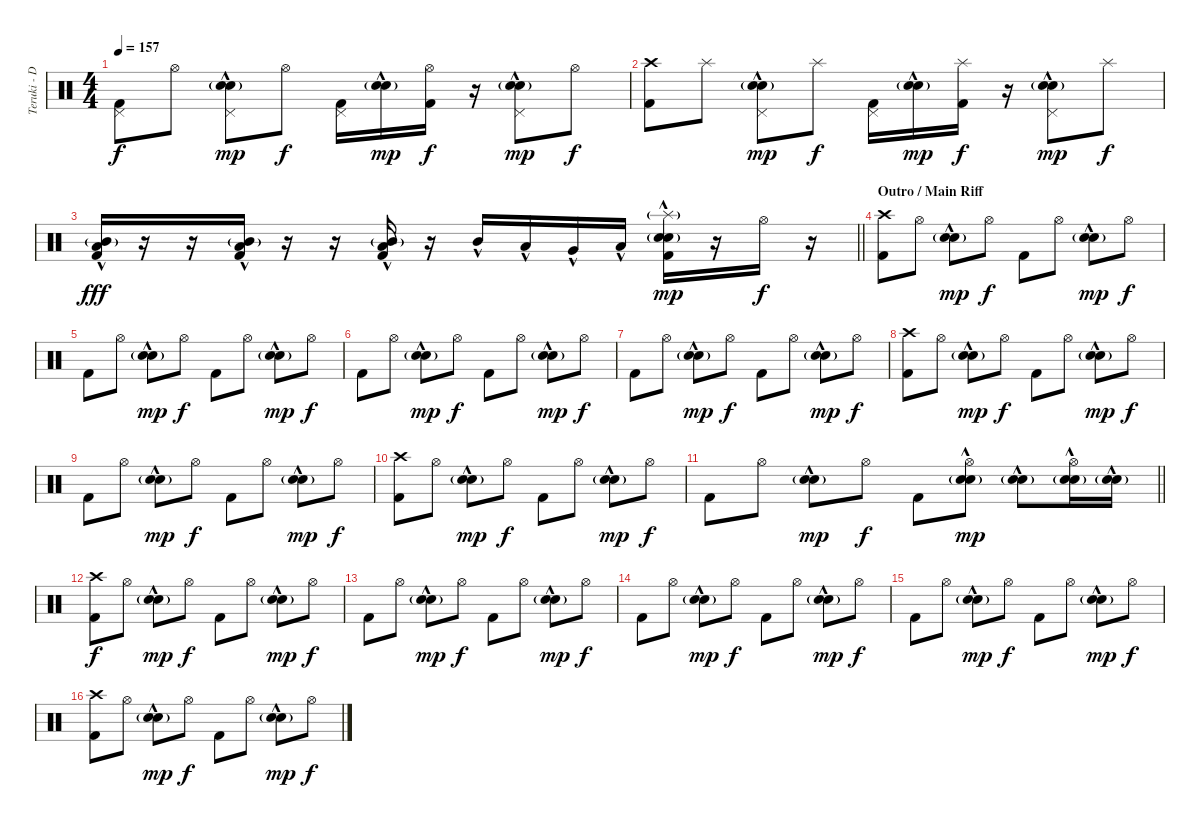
\track ("Teruki - Drums" "Teruki - D") {instrument percussion}
\staff {score}
\articulation defaults
\ts (4 4)
\tempo 157
\clef neutral
\ks c
("Pedal Hi-Hat (hit)" "Kick (hit) 2").8{dy f} "Hi-Hat (open)".8 ("Pedal Hi-Hat (hit)" "Electric Snare (hit)"{hac} "Snare (hit) 2"{g}).8{dy mp} "Hi-Hat (open)".8{dy f} ("Pedal Hi-Hat (hit)" "Kick (hit) 2").16 ("Electric Snare (hit)"{hac} "Snare (hit) 2"{g}).16{dy mp} ("Hi-Hat (open)" "Kick (hit) 2").16{dy f} r.16 ("Pedal Hi-Hat (hit)" "Electric Snare (hit)"{hac} "Snare (hit) 2"{g}).8{dy mp} "Hi-Hat (open)".8{dy f} |
("Crash high (hit)" "Kick (hit) 2").8 "Splash (hit)".8 ("Pedal Hi-Hat (hit)" "Electric Snare (hit)"{hac} "Snare (hit) 2"{g}).8{dy mp} "Splash (hit)".8{dy f} ("Pedal Hi-Hat (hit)" "Kick (hit) 2").16 ("Electric Snare (hit)"{hac} "Snare (hit) 2"{g}).16{dy mp} ("Splash (hit)" "Kick (hit) 2").16{dy f} r.16 ("Pedal Hi-Hat (hit)" "Electric Snare (hit)"{hac} "Snare (hit) 2"{g}).8{dy mp} "Splash (hit)".8{dy f} |
\barLineRight lightlight
("Mid Tom (hit)"{g} "Low Tom (hit)"{hac} "Kick (hit) 2").16{dy fff} r.16 r.16 ("Mid Tom (hit)"{g} "Low Tom (hit)"{hac} "Kick (hit) 2").16 r.16 r.16 ("Mid Tom (hit)"{g} "Low Tom (hit)"{hac} "Kick (hit) 2").16 r.16 "Mid Tom (hit)"{hac}.16 "Low Tom (hit)"{hac}.16 "Very Low Tom (hit)"{hac}.16 "Low Floor Tom (hit)"{hac}.16 ("Splash (hit)"{g} "Electric Snare (hit)"{hac} "Snare (hit) 2"{g} "Kick (hit) 2").16{dy mp} r.16 "Hi-Hat (open)".16{dy f} r.16 |
\section ("" "Outro / Main Riff")
("Crash high (hit)" "Kick (hit) 2").8 "Hi-Hat (open)".8 ("Electric Snare (hit)"{hac} "Snare (hit) 2"{g}).8{dy mp} "Hi-Hat (open)".8{dy f} "Kick (hit) 2".8 "Hi-Hat (open)".8 ("Electric Snare (hit)"{hac} "Snare (hit) 2"{g}).8{dy mp} "Hi-Hat (open)".8{dy f} |
"Kick (hit) 2".8 "Hi-Hat (open)".8 ("Electric Snare (hit)"{hac} "Snare (hit) 2"{g}).8{dy mp} "Hi-Hat (open)".8{dy f} "Kick (hit) 2".8 "Hi-Hat (open)".8 ("Electric Snare (hit)"{hac} "Snare (hit) 2"{g}).8{dy mp} "Hi-Hat (open)".8{dy f} |
"Kick (hit) 2".8 "Hi-Hat (open)".8 ("Electric Snare (hit)"{hac} "Snare (hit) 2"{g}).8{dy mp} "Hi-Hat (open)".8{dy f} "Kick (hit) 2".8 "Hi-Hat (open)".8 ("Electric Snare (hit)"{hac} "Snare (hit) 2"{g}).8{dy mp} "Hi-Hat (open)".8{dy f} |
"Kick (hit) 2".8 "Hi-Hat (open)".8 ("Electric Snare (hit)"{hac} "Snare (hit) 2"{g}).8{dy mp} "Hi-Hat (open)".8{dy f} "Kick (hit) 2".8 "Hi-Hat (open)".8 ("Electric Snare (hit)"{hac} "Snare (hit) 2"{g}).8{dy mp} "Hi-Hat (open)".8{dy f} |
("Crash high (hit)" "Kick (hit) 2").8 "Hi-Hat (open)".8 ("Electric Snare (hit)"{hac} "Snare (hit) 2"{g}).8{dy mp} "Hi-Hat (open)".8{dy f} "Kick (hit) 2".8 "Hi-Hat (open)".8 ("Electric Snare (hit)"{hac} "Snare (hit) 2"{g}).8{dy mp} "Hi-Hat (open)".8{dy f} |
"Kick (hit) 2".8 "Hi-Hat (open)".8 ("Electric Snare (hit)"{hac} "Snare (hit) 2"{g}).8{dy mp} "Hi-Hat (open)".8{dy f} "Kick (hit) 2".8 "Hi-Hat (open)".8 ("Electric Snare (hit)"{hac} "Snare (hit) 2"{g}).8{dy mp} "Hi-Hat (open)".8{dy f} |
("Crash high (hit)" "Kick (hit) 2").8 "Hi-Hat (open)".8 ("Electric Snare (hit)"{hac} "Snare (hit) 2"{g}).8{dy mp} "Hi-Hat (open)".8{dy f} "Kick (hit) 2".8 "Hi-Hat (open)".8 ("Electric Snare (hit)"{hac} "Snare (hit) 2"{g}).8{dy mp} "Hi-Hat (open)".8{dy f} |
\barLineRight lightlight "Kick (hit) 2".8 "Hi-Hat (open)".8
("Electric Snare (hit)"{hac} "Snare (hit) 2"{g}).8{dy mp} "Hi-Hat (open)".8{dy f} "Kick (hit) 2".8 ("Hi-Hat (open)" "Electric Snare (hit)"{hac} "Snare (hit) 2"{g}).8{dy mp} ("Electric Snare (hit)"{hac} "Snare (hit) 2"{g}).8 ("Hi-Hat (open)" "Electric Snare (hit)"{hac} "Snare (hit) 2"{g}).16 ("Electric Snare (hit)"{hac} "Snare (hit) 2"{g}).16 |
\section ("" "")
("Crash high (hit)" "Kick (hit) 2").8{dy f} "Hi-Hat (open)".8 ("Electric Snare (hit)"{hac} "Snare (hit) 2"{g}).8{dy mp} "Hi-Hat (open)".8{dy f} "Kick (hit) 2".8 "Hi-Hat (open)".8 ("Electric Snare (hit)"{hac} "Snare (hit) 2"{g}).8{dy mp} "Hi-Hat (open)".8{dy f} |
"Kick (hit) 2".8 "Hi-Hat (open)".8 ("Electric Snare (hit)"{hac} "Snare (hit) 2"{g}).8{dy mp} "Hi-Hat (open)".8{dy f} "Kick (hit) 2".8 "Hi-Hat (open)".8 ("Electric Snare (hit)"{hac} "Snare (hit) 2"{g}).8{dy mp} "Hi-Hat (open)".8{dy f} |
"Kick (hit) 2".8 "Hi-Hat (open)".8 ("Electric Snare (hit)"{hac} "Snare (hit) 2"{g}).8{dy mp} "Hi-Hat (open)".8{dy f} "Kick (hit) 2".8 "Hi-Hat (open)".8 ("Electric Snare (hit)"{hac} "Snare (hit) 2"{g}).8{dy mp} "Hi-Hat (open)".8{dy f} |
"Kick (hit) 2".8 "Hi-Hat (open)".8 ("Electric Snare (hit)"{hac} "Snare (hit) 2"{g}).8{dy mp} "Hi-Hat (open)".8{dy f} "Kick (hit) 2".8 "Hi-Hat (open)".8 ("Electric Snare (hit)"{hac} "Snare (hit) 2"{g}).8{dy mp} "Hi-Hat (open)".8{dy f} |
("Crash high (hit)" "Kick (hit) 2").8 "Hi-Hat (open)".8 ("Electric Snare (hit)"{hac} "Snare (hit) 2"{g}).8{dy mp} "Hi-Hat (open)".8{dy f} "Kick (hit) 2".8 "Hi-Hat (open)".8 ("Electric Snare (hit)"{hac} "Snare (hit) 2"{g}).8{dy mp} "Hi-Hat (open)".8{dy f}
